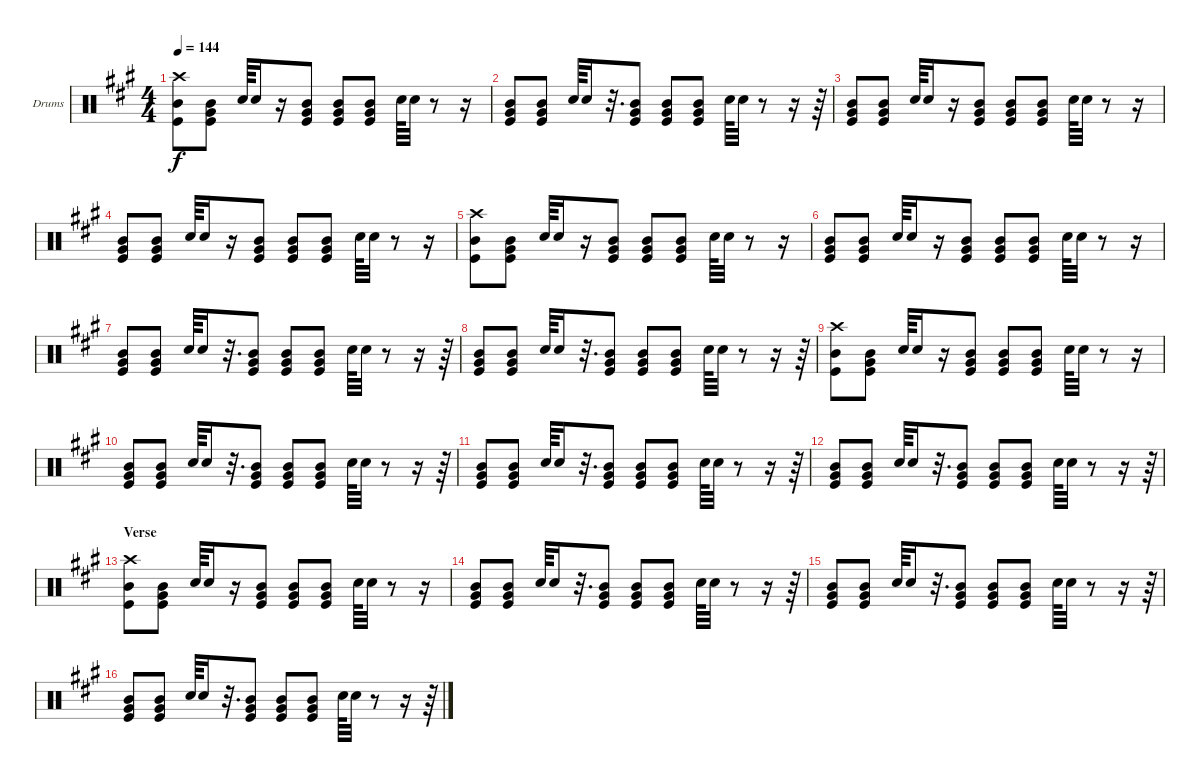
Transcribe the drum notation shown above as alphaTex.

\defaultSystemsLayout 4
\bracketExtendMode groupsimilarinstruments
\firstSystemTrackNameOrientation horizontal
\otherSystemsTrackNameOrientation horizontal
\track ("Drumkit" "Drums") {instrument percussion}
\staff {score}
\articulation defaults
\ts (4 4)
\tempo 144
\clef neutral
\scale
1.05801
\ks a
("Crash high (hit)" "Mid Tom (hit)" "Kick (hit)").8{dy f} ("Mid Tom (hit)" "Very Low Tom (hit)" "Kick (hit)").8 "Snare (hit) 2".64 "Snare (hit) 2".16 r.16 ("Mid Tom (hit)" "Very Low Tom (hit)" "Kick (hit)").8 ("Mid Tom (hit)" "Very Low Tom (hit)" "Kick (hit)").8 ("Mid Tom (hit)" "Very Low Tom (hit)" "Kick (hit)").8 "Snare (hit) 2".64 "Snare (hit) 2".32 r.8 r.16 |
\scale
0.941992 ("Mid Tom (hit)" "Very Low Tom (hit)" "Kick (hit)").8 ("Mid Tom (hit)" "Very Low Tom (hit)" "Kick (hit)").8 "Snare (hit) 2".64 "Snare (hit) 2".16 r.32{d} ("Mid Tom (hit)" "Very Low Tom (hit)" "Kick (hit)").8 ("Mid Tom (hit)" "Very Low Tom (hit)" "Kick (hit)").8 ("Mid Tom (hit)" "Very Low Tom (hit)" "Kick (hit)").8 "Snare (hit) 2".64 "Snare (hit) 2".32 r.8 r.16 r.64 |
\scale
1.05801 ("Mid Tom (hit)" "Very Low Tom (hit)" "Kick (hit)").8 ("Mid Tom (hit)" "Very Low Tom (hit)" "Kick (hit)").8 "Snare (hit) 2".64 "Snare (hit) 2".16 r.16 ("Mid Tom (hit)" "Very Low Tom (hit)" "Kick (hit)").8 ("Mid Tom (hit)" "Very Low Tom (hit)" "Kick (hit)").8 ("Mid Tom (hit)" "Very Low Tom (hit)" "Kick (hit)").8 "Snare (hit) 2".64 "Snare (hit) 2".32 r.8 r.16 |
\scale
0.941992 ("Mid Tom (hit)" "Very Low Tom (hit)" "Kick (hit)").8 ("Mid Tom (hit)" "Very Low Tom (hit)" "Kick (hit)").8 "Snare (hit) 2".64 "Snare (hit) 2".16 r.16 ("Mid Tom (hit)" "Very Low Tom (hit)" "Kick (hit)").8 ("Mid Tom (hit)" "Very Low Tom (hit)" "Kick (hit)").8 ("Mid Tom (hit)" "Very Low Tom (hit)" "Kick (hit)").8 "Snare (hit) 2".64 "Snare (hit) 2".32 r.8 r.16 |
\scale
1.05801 ("Crash high (hit)" "Mid Tom (hit)" "Kick (hit)").8 ("Mid Tom (hit)" "Very Low Tom (hit)" "Kick (hit)").8 "Snare (hit) 2".64 "Snare (hit) 2".16 r.16 ("Mid Tom (hit)" "Very Low Tom (hit)" "Kick (hit)").8 ("Mid Tom (hit)" "Very Low Tom (hit)" "Kick (hit)").8 ("Mid Tom (hit)" "Very Low Tom (hit)" "Kick (hit)").8 "Snare (hit) 2".64 "Snare (hit) 2".32 r.8 r.16 |
\scale
0.941992 ("Mid Tom (hit)" "Very Low Tom (hit)" "Kick (hit)").8 ("Mid Tom (hit)" "Very Low Tom (hit)" "Kick (hit)").8 "Snare (hit) 2".64 "Snare (hit) 2".16 r.16 ("Mid Tom (hit)" "Very Low Tom (hit)" "Kick (hit)").8 ("Mid Tom (hit)" "Very Low Tom (hit)" "Kick (hit)").8 ("Mid Tom (hit)" "Very Low Tom (hit)" "Kick (hit)").8 "Snare (hit) 2".64 "Snare (hit) 2".32 r.8 r.16 |
\scale
1.05801 ("Mid Tom (hit)" "Very Low Tom (hit)" "Kick (hit)").8 ("Mid Tom (hit)" "Very Low Tom (hit)" "Kick (hit)").8 "Snare (hit) 2".64 "Snare (hit) 2".16 r.32{d} ("Mid Tom (hit)" "Very Low Tom (hit)" "Kick (hit)").8 ("Mid Tom (hit)" "Very Low Tom (hit)" "Kick (hit)").8 ("Mid Tom (hit)" "Very Low Tom (hit)" "Kick (hit)").8 "Snare (hit) 2".64 "Snare (hit) 2".32 r.8 r.16 r.64 |
\scale
0.941992 ("Mid Tom (hit)" "Very Low Tom (hit)" "Kick (hit)").8 ("Mid Tom (hit)" "Very Low Tom (hit)" "Kick (hit)").8 "Snare (hit) 2".64 "Snare (hit) 2".16 r.32{d} ("Mid Tom (hit)" "Very Low Tom (hit)" "Kick (hit)").8 ("Mid Tom (hit)" "Very Low Tom (hit)" "Kick (hit)").8 ("Mid Tom (hit)" "Very Low Tom (hit)" "Kick (hit)").8 "Snare (hit) 2".64 "Snare (hit) 2".32 r.8 r.16 r.64 |
\scale
1.05801 ("Crash high (hit)" "Mid Tom (hit)" "Kick (hit)").8 ("Mid Tom (hit)" "Very Low Tom (hit)" "Kick (hit)").8 "Snare (hit) 2".64 "Snare (hit) 2".16 r.16 ("Mid Tom (hit)" "Very Low Tom (hit)" "Kick (hit)").8 ("Mid Tom (hit)" "Very Low Tom (hit)" "Kick (hit)").8 ("Mid Tom (hit)" "Very Low Tom (hit)" "Kick (hit)").8 "Snare (hit) 2".64 "Snare (hit) 2".32 r.8 r.16 |
\scale
0.941992 ("Mid Tom (hit)" "Very Low Tom (hit)" "Kick (hit)").8 ("Mid Tom (hit)" "Very Low Tom (hit)" "Kick (hit)").8 "Snare (hit) 2".64 "Snare (hit) 2".16 r.32{d} ("Mid Tom (hit)" "Very Low Tom (hit)" "Kick (hit)").8 ("Mid Tom (hit)" "Very Low Tom (hit)" "Kick (hit)").8 ("Mid Tom (hit)" "Very Low Tom (hit)" "Kick (hit)").8 "Snare (hit) 2".64 "Snare (hit) 2".32 r.8 r.16 r.64 |
\scale
1.05801 ("Mid Tom (hit)" "Very Low Tom (hit)" "Kick (hit)").8 ("Mid Tom (hit)" "Very Low Tom (hit)" "Kick (hit)").8 "Snare (hit) 2".64 "Snare (hit) 2".16 r.32{d} ("Mid Tom (hit)" "Very Low Tom (hit)" "Kick (hit)").8 ("Mid Tom (hit)" "Very Low Tom (hit)" "Kick (hit)").8 ("Mid Tom (hit)" "Very Low Tom (hit)" "Kick (hit)").8 "Snare (hit) 2".64 "Snare (hit) 2".32 r.8 r.16 r.64 |
\scale
0.941992 ("Mid Tom (hit)" "Very Low Tom (hit)" "Kick (hit)").8 ("Mid Tom (hit)" "Very Low Tom (hit)" "Kick (hit)").8 "Snare (hit) 2".64 "Snare (hit) 2".16 r.32{d} ("Mid Tom (hit)" "Very Low Tom (hit)" "Kick (hit)").8 ("Mid Tom (hit)" "Very Low Tom (hit)" "Kick (hit)").8 ("Mid Tom (hit)" "Very Low Tom (hit)" "Kick (hit)").8 "Snare (hit) 2".64 "Snare (hit) 2".32 r.8 r.16 r.64 |
\section ("" "Verse")
\scale
1.05801 ("Crash high (hit)" "Mid Tom (hit)" "Kick (hit)").8 ("Mid Tom (hit)" "Very Low Tom (hit)" "Kick (hit)").8 "Snare (hit) 2".64 "Snare (hit) 2".16 r.16 ("Mid Tom (hit)" "Very Low Tom (hit)" "Kick (hit)").8 ("Mid Tom (hit)" "Very Low Tom (hit)" "Kick (hit)").8 ("Mid Tom (hit)" "Very Low Tom (hit)" "Kick (hit)").8 "Snare (hit) 2".64 "Snare (hit) 2".32 r.8 r.16 |
\scale
0.941992 ("Mid Tom (hit)" "Very Low Tom (hit)" "Kick (hit)").8 ("Mid Tom (hit)" "Very Low Tom (hit)" "Kick (hit)").8 "Snare (hit) 2".64 "Snare (hit) 2".16 r.32{d} ("Mid Tom (hit)" "Very Low Tom (hit)" "Kick (hit)").8 ("Mid Tom (hit)" "Very Low Tom (hit)" "Kick (hit)").8 ("Mid Tom (hit)" "Very Low Tom (hit)" "Kick (hit)").8 "Snare (hit) 2".64 "Snare (hit) 2".32 r.8 r.16 r.64 |
\scale
1.05801 ("Mid Tom (hit)" "Very Low Tom (hit)" "Kick (hit)").8 ("Mid Tom (hit)" "Very Low Tom (hit)" "Kick (hit)").8 "Snare (hit) 2".64 "Snare (hit) 2".16 r.32{d} ("Mid Tom (hit)" "Very Low Tom (hit)" "Kick (hit)").8 ("Mid Tom (hit)" "Very Low Tom (hit)" "Kick (hit)").8 ("Mid Tom (hit)" "Very Low Tom (hit)" "Kick (hit)").8 "Snare (hit) 2".64 "Snare (hit) 2".32 r.8 r.16 r.64 |
\scale
0.941992 ("Mid Tom (hit)" "Very Low Tom (hit)" "Kick (hit)").8 ("Mid Tom (hit)" "Very Low Tom (hit)" "Kick (hit)").8 "Snare (hit) 2".64 "Snare (hit) 2".16 r.32{d} ("Mid Tom (hit)" "Very Low Tom (hit)" "Kick (hit)").8 ("Mid Tom (hit)" "Very Low Tom (hit)" "Kick (hit)").8 ("Mid Tom (hit)" "Very Low Tom (hit)" "Kick (hit)").8 "Snare (hit) 2".64 "Snare (hit) 2".32 r.8 r.16 r.64
